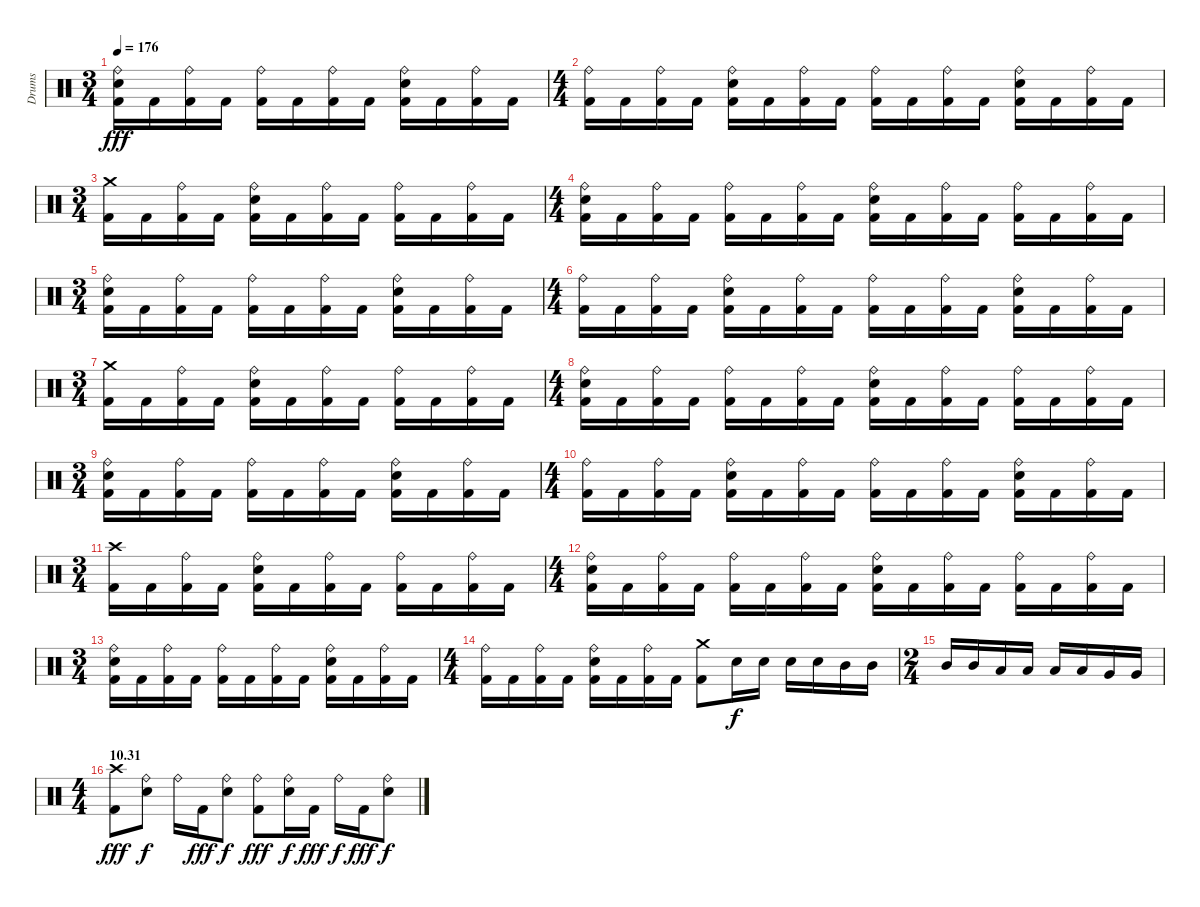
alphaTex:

\track ("Drums" "Drums") {instrument percussion}
\staff {score}
\articulation defaults
\ts (3 4)
\tempo 176
\clef neutral
\ks c
("Ride (bell)" "Snare (hit) 2" "Kick (hit) 2").16{dy fff} "Kick (hit) 2".16 ("Ride (bell)" "Kick (hit) 2").16 "Kick (hit) 2".16 ("Ride (bell)" "Kick (hit) 2").16 "Kick (hit) 2".16 ("Ride (bell)" "Kick (hit) 2").16 "Kick (hit) 2".16 ("Ride (bell)" "Snare (hit) 2" "Kick (hit) 2").16 "Kick (hit) 2".16 ("Ride (bell)" "Kick (hit) 2").16 "Kick (hit) 2".16 |
\ts (4 4)
("Ride (bell)" "Kick (hit) 2").16 "Kick (hit) 2".16 ("Ride (bell)" "Kick (hit) 2").16 "Kick (hit) 2".16 ("Ride (bell)" "Snare (hit) 2" "Kick (hit) 2").16 "Kick (hit) 2".16 ("Ride (bell)" "Kick (hit) 2").16 "Kick (hit) 2".16 ("Ride (bell)" "Kick (hit) 2").16 "Kick (hit) 2".16 ("Ride (bell)" "Kick (hit) 2").16 "Kick (hit) 2".16 ("Ride (bell)" "Snare (hit) 2" "Kick (hit) 2").16 "Kick (hit) 2".16 ("Ride (bell)" "Kick (hit) 2").16 "Kick (hit) 2".16 |
\ts (3 4)
("Crash medium (hit)" "Kick (hit) 2").16 "Kick (hit) 2".16 ("Ride (bell)" "Kick (hit) 2").16 "Kick (hit) 2".16 ("Ride (bell)" "Snare (hit) 2" "Kick (hit) 2").16 "Kick (hit) 2".16 ("Ride (bell)" "Kick (hit) 2").16 "Kick (hit) 2".16 ("Ride (bell)" "Kick (hit) 2").16 "Kick (hit) 2".16 ("Ride (bell)" "Kick (hit) 2").16 "Kick (hit) 2".16 |
\ts (4 4)
("Ride (bell)" "Snare (hit) 2" "Kick (hit) 2").16 "Kick (hit) 2".16 ("Ride (bell)" "Kick (hit) 2").16 "Kick (hit) 2".16 ("Ride (bell)" "Kick (hit) 2").16 "Kick (hit) 2".16 ("Ride (bell)" "Kick (hit) 2").16 "Kick (hit) 2".16 ("Ride (bell)" "Snare (hit) 2" "Kick (hit) 2").16 "Kick (hit) 2".16 ("Ride (bell)" "Kick (hit) 2").16 "Kick (hit) 2".16 ("Ride (bell)" "Kick (hit) 2").16 "Kick (hit) 2".16 ("Ride (bell)" "Kick (hit) 2").16 "Kick (hit) 2".16 |
\ts (3 4)
("Ride (bell)" "Snare (hit) 2" "Kick (hit) 2").16 "Kick (hit) 2".16 ("Ride (bell)" "Kick (hit) 2").16 "Kick (hit) 2".16 ("Ride (bell)" "Kick (hit) 2").16 "Kick (hit) 2".16 ("Ride (bell)" "Kick (hit) 2").16 "Kick (hit) 2".16 ("Ride (bell)" "Snare (hit) 2" "Kick (hit) 2").16 "Kick (hit) 2".16 ("Ride (bell)" "Kick (hit) 2").16 "Kick (hit) 2".16 |
\ts (4 4)
("Ride (bell)" "Kick (hit) 2").16 "Kick (hit) 2".16 ("Ride (bell)" "Kick (hit) 2").16 "Kick (hit) 2".16 ("Ride (bell)" "Snare (hit) 2" "Kick (hit) 2").16 "Kick (hit) 2".16 ("Ride (bell)" "Kick (hit) 2").16 "Kick (hit) 2".16 ("Ride (bell)" "Kick (hit) 2").16 "Kick (hit) 2".16 ("Ride (bell)" "Kick (hit) 2").16 "Kick (hit) 2".16 ("Ride (bell)" "Snare (hit) 2" "Kick (hit) 2").16 "Kick (hit) 2".16 ("Ride (bell)" "Kick (hit) 2").16 "Kick (hit) 2".16 |
\ts (3 4)
("Crash medium (hit)" "Kick (hit) 2").16 "Kick (hit) 2".16 ("Ride (bell)" "Kick (hit) 2").16 "Kick (hit) 2".16 ("Ride (bell)" "Snare (hit) 2" "Kick (hit) 2").16 "Kick (hit) 2".16 ("Ride (bell)" "Kick (hit) 2").16 "Kick (hit) 2".16 ("Ride (bell)" "Kick (hit) 2").16 "Kick (hit) 2".16 ("Ride (bell)" "Kick (hit) 2").16 "Kick (hit) 2".16 |
\ts (4 4)
("Ride (bell)" "Snare (hit) 2" "Kick (hit) 2").16 "Kick (hit) 2".16 ("Ride (bell)" "Kick (hit) 2").16 "Kick (hit) 2".16 ("Ride (bell)" "Kick (hit) 2").16 "Kick (hit) 2".16 ("Ride (bell)" "Kick (hit) 2").16 "Kick (hit) 2".16 ("Ride (bell)" "Snare (hit) 2" "Kick (hit) 2").16 "Kick (hit) 2".16 ("Ride (bell)" "Kick (hit) 2").16 "Kick (hit) 2".16 ("Ride (bell)" "Kick (hit) 2").16 "Kick (hit) 2".16 ("Ride (bell)" "Kick (hit) 2").16 "Kick (hit) 2".16 |
\ts (3 4)
("Ride (bell)" "Snare (hit) 2" "Kick (hit) 2").16 "Kick (hit) 2".16 ("Ride (bell)" "Kick (hit) 2").16 "Kick (hit) 2".16 ("Ride (bell)" "Kick (hit) 2").16 "Kick (hit) 2".16 ("Ride (bell)" "Kick (hit) 2").16 "Kick (hit) 2".16 ("Ride (bell)" "Snare (hit) 2" "Kick (hit) 2").16 "Kick (hit) 2".16 ("Ride (bell)" "Kick (hit) 2").16 "Kick (hit) 2".16 |
\ts (4 4)
("Ride (bell)" "Kick (hit) 2").16 "Kick (hit) 2".16 ("Ride (bell)" "Kick (hit) 2").16 "Kick (hit) 2".16 ("Ride (bell)" "Snare (hit) 2" "Kick (hit) 2").16 "Kick (hit) 2".16 ("Ride (bell)" "Kick (hit) 2").16 "Kick (hit) 2".16 ("Ride (bell)" "Kick (hit) 2").16 "Kick (hit) 2".16 ("Ride (bell)" "Kick (hit) 2").16 "Kick (hit) 2".16 ("Ride (bell)" "Snare (hit) 2" "Kick (hit) 2").16 "Kick (hit) 2".16 ("Ride (bell)" "Kick (hit) 2").16 "Kick (hit) 2".16 |
\ts (3 4)
("Crash high (hit)" "Kick (hit) 2").16 "Kick (hit) 2".16 ("Ride (bell)" "Kick (hit) 2").16 "Kick (hit) 2".16 ("Ride (bell)" "Snare (hit) 2" "Kick (hit) 2").16 "Kick (hit) 2".16 ("Ride (bell)" "Kick (hit) 2").16 "Kick (hit) 2".16 ("Ride (bell)" "Kick (hit) 2").16 "Kick (hit) 2".16 ("Ride (bell)" "Kick (hit) 2").16 "Kick (hit) 2".16 |
\ts (4 4)
("Ride (bell)" "Snare (hit) 2" "Kick (hit) 2").16 "Kick (hit) 2".16 ("Ride (bell)" "Kick (hit) 2").16 "Kick (hit) 2".16 ("Ride (bell)" "Kick (hit) 2").16 "Kick (hit) 2".16 ("Ride (bell)" "Kick (hit) 2").16 "Kick (hit) 2".16 ("Ride (bell)" "Snare (hit) 2" "Kick (hit) 2").16 "Kick (hit) 2".16 ("Ride (bell)" "Kick (hit) 2").16 "Kick (hit) 2".16 ("Ride (bell)" "Kick (hit) 2").16 "Kick (hit) 2".16 ("Ride (bell)" "Kick (hit) 2").16 "Kick (hit) 2".16 |
\ts (3 4)
("Ride (bell)" "Snare (hit) 2" "Kick (hit) 2").16 "Kick (hit) 2".16 ("Ride (bell)" "Kick (hit) 2").16 "Kick (hit) 2".16 ("Ride (bell)" "Kick (hit) 2").16 "Kick (hit) 2".16 ("Ride (bell)" "Kick (hit) 2").16 "Kick (hit) 2".16 ("Ride (bell)" "Snare (hit) 2" "Kick (hit) 2").16 "Kick (hit) 2".16 ("Ride (bell)" "Kick (hit) 2").16 "Kick (hit) 2".16 |
\ts (4 4)
("Ride (bell)" "Kick (hit) 2").16 "Kick (hit) 2".16 ("Ride (bell)" "Kick (hit) 2").16 "Kick (hit) 2".16 ("Ride (bell)" "Snare (hit) 2" "Kick (hit) 2").16 "Kick (hit) 2".16 ("Ride (bell)" "Kick (hit) 2").16 "Kick (hit) 2".16 ("Crash medium (hit)" "Kick (hit) 2").8 "Snare (hit) 2".16{dy f} "Snare (hit) 2".16 "Snare (hit) 2".16 "Snare (hit) 2".16 "Mid Tom (hit)".16 "Mid Tom (hit)".16 |
\ts (2 4)
"Mid Tom (hit)".16 "Mid Tom (hit)".16 "Low Tom (hit)".16 "Low Tom (hit)".16 "Low Tom (hit)".16 "Low Tom (hit)".16 "Very Low Tom (hit)".16 "Very Low Tom (hit)".16 |
\ts (4 4)
\section ("" "10.31")
("Crash high (hit)" "Kick (hit) 2").8{dy fff} ("Ride (bell)" "Snare (hit) 2").8{dy f} "Ride (bell)".16 "Kick (hit) 2".16{dy fff} ("Ride (bell)" "Snare (hit) 2").8{dy f} ("Ride (bell)" "Kick (hit) 2").8{dy fff} ("Ride (bell)" "Snare (hit) 2").16{dy f} "Kick (hit) 2".16{dy fff} "Ride (bell)".16{dy f} "Kick (hit) 2".16{dy fff} ("Ride (bell)" "Snare (hit) 2").8{dy f}
